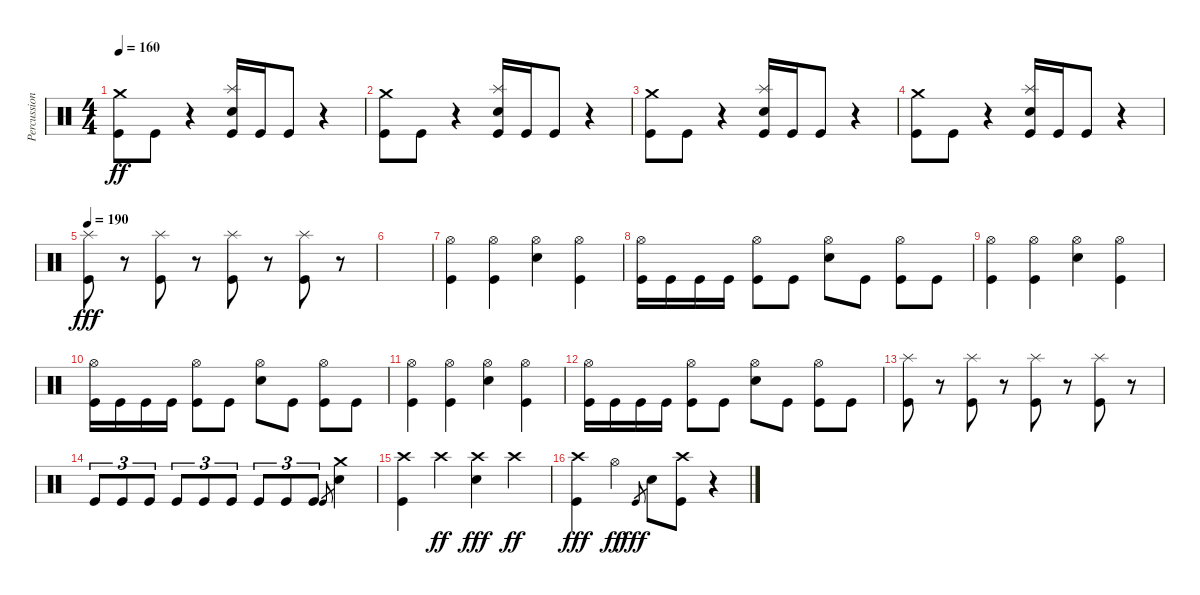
\track ("Percussion" "Percussion") {instrument percussion}
\staff {score}
\articulation defaults
\ts (4 4)
\tempo 160
\clef neutral
\ks c
("Crash medium (hit)" "Kick (hit)").8{dy ff} "Kick (hit)".8 r.4 ("Splash (hit)" "Electric Snare (hit)" "Kick (hit)").16 "Kick (hit)".16 "Kick (hit)".8 r.4 |
("Crash medium (hit)" "Kick (hit)").8 "Kick (hit)".8 r.4 ("Splash (hit)" "Electric Snare (hit)" "Kick (hit)").16 "Kick (hit)".16 "Kick (hit)".8 r.4 |
("Crash medium (hit)" "Kick (hit)").8 "Kick (hit)".8 r.4 ("Splash (hit)" "Electric Snare (hit)" "Kick (hit)").16 "Kick (hit)".16 "Kick (hit)".8 r.4 |
("Crash medium (hit)" "Kick (hit)").8 "Kick (hit)".8 r.4 ("Splash (hit)" "Electric Snare (hit)" "Kick (hit)").16 "Kick (hit)".16 "Kick (hit)".8 r.4 |
\tempo 190
("Splash (hit)" "Kick (hit)").8{dy fff} r.8 ("Splash (hit)" "Kick (hit)").8 r.8 ("Splash (hit)" "Kick (hit)").8 r.8 ("Splash (hit)" "Kick (hit)").8 r.8 |
|
("Hi-Hat (open)" "Kick (hit)").4 ("Hi-Hat (open)" "Kick (hit)").4 ("Hi-Hat (open)" "Electric Snare (hit)").4 ("Hi-Hat (open)" "Kick (hit)").4 |
("Hi-Hat (open)" "Kick (hit)").16 "Kick (hit)".16 "Kick (hit)".16 "Kick (hit)".16 ("Hi-Hat (open)" "Kick (hit)").8 "Kick (hit)".8 ("Hi-Hat (open)" "Electric Snare (hit)").8 "Kick (hit)".8 ("Hi-Hat (open)" "Kick (hit)").8 "Kick (hit)".8 |
("Hi-Hat (open)" "Kick (hit)").4 ("Hi-Hat (open)" "Kick (hit)").4 ("Hi-Hat (open)" "Electric Snare (hit)").4 ("Hi-Hat (open)" "Kick (hit)").4 |
("Hi-Hat (open)" "Kick (hit)").16 "Kick (hit)".16 "Kick (hit)".16 "Kick (hit)".16 ("Hi-Hat (open)" "Kick (hit)").8 "Kick (hit)".8 ("Hi-Hat (open)" "Electric Snare (hit)").8 "Kick (hit)".8 ("Hi-Hat (open)" "Kick (hit)").8 "Kick (hit)".8 |
("Hi-Hat (open)" "Kick (hit)").4 ("Hi-Hat (open)" "Kick (hit)").4 ("Hi-Hat (open)" "Electric Snare (hit)").4 ("Hi-Hat (open)" "Kick (hit)").4 |
("Hi-Hat (open)" "Kick (hit)").16 "Kick (hit)".16 "Kick (hit)".16 "Kick (hit)".16 ("Hi-Hat (open)" "Kick (hit)").8 "Kick (hit)".8 ("Hi-Hat (open)" "Electric Snare (hit)").8 "Kick (hit)".8 ("Hi-Hat (open)" "Kick (hit)").8 "Kick (hit)".8 |
("Splash (hit)" "Kick (hit)").8 r.8 ("Splash (hit)" "Kick (hit)").8 r.8 ("Splash (hit)" "Kick (hit)").8 r.8 ("Splash (hit)" "Kick (hit)").8 r.8 |
"Kick (hit)".8{tu (3 2)} "Kick (hit)".8{tu (3 2)} "Kick (hit)".8{tu (3 2)} "Kick (hit)".8{tu (3 2)} "Kick (hit)".8{tu (3 2)} "Kick (hit)".8{tu (3 2)} "Kick (hit)".8{tu (3 2)} "Kick (hit)".8{tu (3 2)} "Kick (hit)".8{tu (3 2)} "Kick (hit)".8{gr} ("Crash medium (hit)" "Electric Snare (hit)").4 |
("Crash high (hit)" "Kick (hit)").4 "Crash high (hit)".4{dy ff} ("Crash high (hit)" "Electric Snare (hit)").4{dy fff} "Crash high (hit)".4{dy ff} |
("Crash high (hit)" "Kick (hit)").4{dy fff} "Hi-Hat (open)".4{dy ff} "Kick (hit)".8{gr dy fff} "Electric Snare (hit)".8 ("Crash high (hit)" "Kick (hit)").8 r.4
